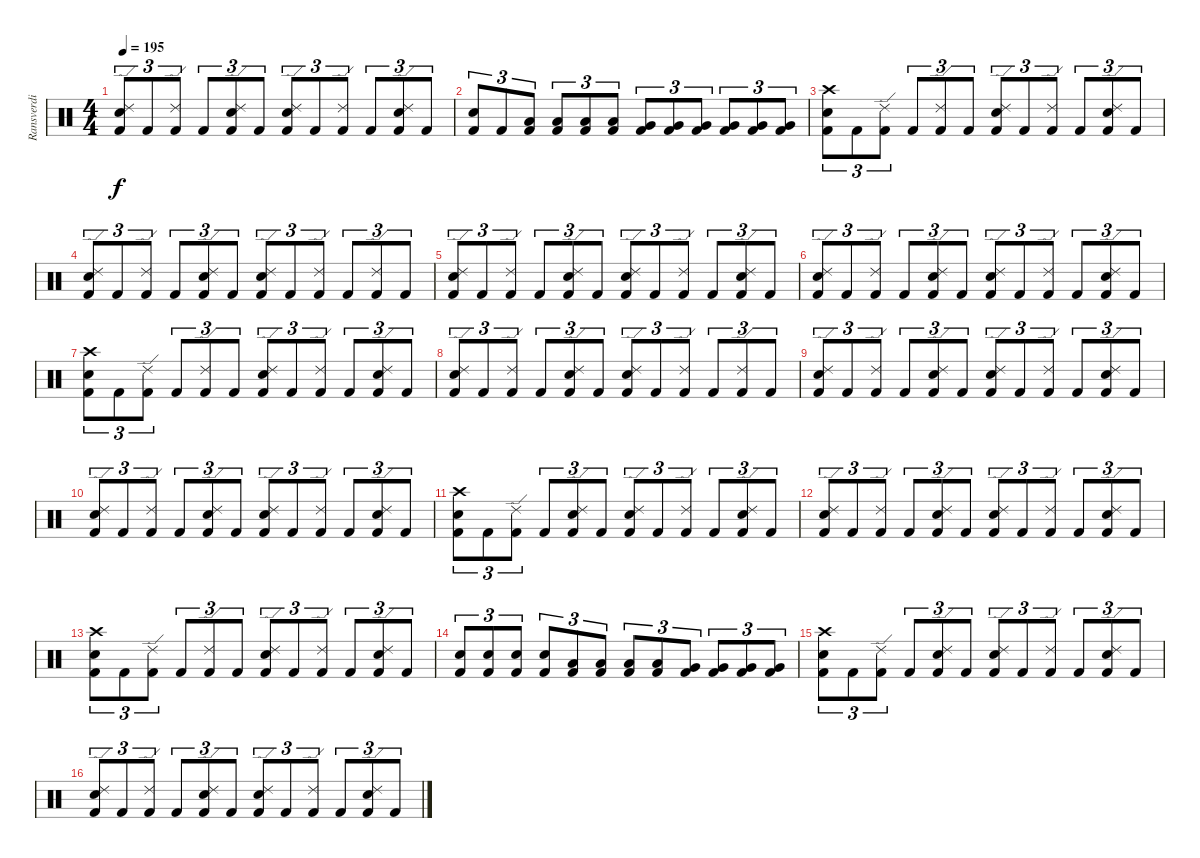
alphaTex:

\track ("Ransverdi" "Ransverdi") {instrument percussion}
\staff {score}
\articulation defaults
\ts (4 4)
\tempo 195
\clef neutral
\ks c
("Ride (edge) 2" "Snare (hit) 2" "Kick (hit) 2").8{tu (3 2) dy f} "Kick (hit) 2".8{tu (3 2)} ("Ride (edge) 2" "Kick (hit) 2").8{tu (3 2)} "Kick (hit) 2".8{tu (3 2)} ("Ride (edge) 2" "Snare (hit) 2" "Kick (hit) 2").8{tu (3 2)} "Kick (hit) 2".8{tu (3 2)} ("Ride (edge) 2" "Snare (hit) 2" "Kick (hit) 2").8{tu (3 2)} "Kick (hit) 2".8{tu (3 2)} ("Ride (edge) 2" "Kick (hit) 2").8{tu (3 2)} "Kick (hit) 2".8{tu (3 2)} ("Ride (edge) 2" "Snare (hit) 2" "Kick (hit) 2").8{tu (3 2)} "Kick (hit) 2".8{tu (3 2)} |
("Snare (hit) 2" "Kick (hit) 2").8{tu (3 2)} "Kick (hit) 2".8{tu (3 2)} ("Low Tom (hit)" "Kick (hit) 2").8{tu (3 2)} ("Low Tom (hit)" "Kick (hit) 2").8{tu (3 2)} ("Low Tom (hit)" "Kick (hit) 2").8{tu (3 2)} ("Low Tom (hit)" "Kick (hit) 2").8{tu (3 2)} ("Very Low Tom (hit)" "Kick (hit) 2").8{tu (3 2)} ("Very Low Tom (hit)" "Kick (hit) 2").8{tu (3 2)} ("Very Low Tom (hit)" "Kick (hit) 2").8{tu (3 2)} ("Very Low Tom (hit)" "Kick (hit) 2").8{tu (3 2)} ("Very Low Tom (hit)" "Kick (hit) 2").8{tu (3 2)} ("Very Low Tom (hit)" "Kick (hit) 2").8{tu (3 2)} |
("Crash high (hit)" "Snare (hit) 2" "Kick (hit) 2").8{tu (3 2)} "Kick (hit) 2".8{tu (3 2)} ("Ride (edge) 2" "Kick (hit) 2").8{tu (3 2)} "Kick (hit) 2".8{tu (3 2)} ("Ride (edge) 2" "Kick (hit) 2").8{tu (3 2)} "Kick (hit) 2".8{tu (3 2)} ("Ride (edge) 2" "Snare (hit) 2" "Kick (hit) 2").8{tu (3 2)} "Kick (hit) 2".8{tu (3 2)} ("Ride (edge) 2" "Kick (hit) 2").8{tu (3 2)} "Kick (hit) 2".8{tu (3 2)} ("Ride (edge) 2" "Snare (hit) 2" "Kick (hit) 2").8{tu (3 2)} "Kick (hit) 2".8{tu (3 2)} |
("Ride (edge) 2" "Snare (hit) 2" "Kick (hit) 2").8{tu (3 2)} "Kick (hit) 2".8{tu (3 2)} ("Ride (edge) 2" "Kick (hit) 2").8{tu (3 2)} "Kick (hit) 2".8{tu (3 2)} ("Ride (edge) 2" "Snare (hit) 2" "Kick (hit) 2").8{tu (3 2)} "Kick (hit) 2".8{tu (3 2)} ("Ride (edge) 2" "Snare (hit) 2" "Kick (hit) 2").8{tu (3 2)} "Kick (hit) 2".8{tu (3 2)} ("Ride (edge) 2" "Kick (hit) 2").8{tu (3 2)} "Kick (hit) 2".8{tu (3 2)} ("Ride (edge) 2" "Kick (hit) 2").8{tu (3 2)} "Kick (hit) 2".8{tu (3 2)} |
("Ride (edge) 2" "Snare (hit) 2" "Kick (hit) 2").8{tu (3 2)} "Kick (hit) 2".8{tu (3 2)} ("Ride (edge) 2" "Kick (hit) 2").8{tu (3 2)} "Kick (hit) 2".8{tu (3 2)} ("Ride (edge) 2" "Snare (hit) 2" "Kick (hit) 2").8{tu (3 2)} "Kick (hit) 2".8{tu (3 2)} ("Ride (edge) 2" "Snare (hit) 2" "Kick (hit) 2").8{tu (3 2)} "Kick (hit) 2".8{tu (3 2)} ("Ride (edge) 2" "Kick (hit) 2").8{tu (3 2)} "Kick (hit) 2".8{tu (3 2)} ("Ride (edge) 2" "Snare (hit) 2" "Kick (hit) 2").8{tu (3 2)} "Kick (hit) 2".8{tu (3 2)} |
("Ride (edge) 2" "Snare (hit) 2" "Kick (hit) 2").8{tu (3 2)} "Kick (hit) 2".8{tu (3 2)} ("Ride (edge) 2" "Kick (hit) 2").8{tu (3 2)} "Kick (hit) 2".8{tu (3 2)} ("Ride (edge) 2" "Snare (hit) 2" "Kick (hit) 2").8{tu (3 2)} "Kick (hit) 2".8{tu (3 2)} ("Ride (edge) 2" "Snare (hit) 2" "Kick (hit) 2").8{tu (3 2)} "Kick (hit) 2".8{tu (3 2)} ("Ride (edge) 2" "Kick (hit) 2").8{tu (3 2)} "Kick (hit) 2".8{tu (3 2)} ("Ride (edge) 2" "Snare (hit) 2" "Kick (hit) 2").8{tu (3 2)} "Kick (hit) 2".8{tu (3 2)} |
("Crash high (hit)" "Snare (hit) 2" "Kick (hit) 2").8{tu (3 2)} "Kick (hit) 2".8{tu (3 2)} ("Ride (edge) 2" "Kick (hit) 2").8{tu (3 2)} "Kick (hit) 2".8{tu (3 2)} ("Ride (edge) 2" "Kick (hit) 2").8{tu (3 2)} "Kick (hit) 2".8{tu (3 2)} ("Ride (edge) 2" "Snare (hit) 2" "Kick (hit) 2").8{tu (3 2)} "Kick (hit) 2".8{tu (3 2)} ("Ride (edge) 2" "Kick (hit) 2").8{tu (3 2)} "Kick (hit) 2".8{tu (3 2)} ("Ride (edge) 2" "Snare (hit) 2" "Kick (hit) 2").8{tu (3 2)} "Kick (hit) 2".8{tu (3 2)} |
("Ride (edge) 2" "Snare (hit) 2" "Kick (hit) 2").8{tu (3 2)} "Kick (hit) 2".8{tu (3 2)} ("Ride (edge) 2" "Kick (hit) 2").8{tu (3 2)} "Kick (hit) 2".8{tu (3 2)} ("Ride (edge) 2" "Snare (hit) 2" "Kick (hit) 2").8{tu (3 2)} "Kick (hit) 2".8{tu (3 2)} ("Ride (edge) 2" "Snare (hit) 2" "Kick (hit) 2").8{tu (3 2)} "Kick (hit) 2".8{tu (3 2)} ("Ride (edge) 2" "Kick (hit) 2").8{tu (3 2)} "Kick (hit) 2".8{tu (3 2)} ("Ride (edge) 2" "Kick (hit) 2").8{tu (3 2)} "Kick (hit) 2".8{tu (3 2)} |
("Ride (edge) 2" "Snare (hit) 2" "Kick (hit) 2").8{tu (3 2)} "Kick (hit) 2".8{tu (3 2)} ("Ride (edge) 2" "Kick (hit) 2").8{tu (3 2)} "Kick (hit) 2".8{tu (3 2)} ("Ride (edge) 2" "Snare (hit) 2" "Kick (hit) 2").8{tu (3 2)} "Kick (hit) 2".8{tu (3 2)} ("Ride (edge) 2" "Snare (hit) 2" "Kick (hit) 2").8{tu (3 2)} "Kick (hit) 2".8{tu (3 2)} ("Ride (edge) 2" "Kick (hit) 2").8{tu (3 2)} "Kick (hit) 2".8{tu (3 2)} ("Ride (edge) 2" "Snare (hit) 2" "Kick (hit) 2").8{tu (3 2)} "Kick (hit) 2".8{tu (3 2)} |
("Ride (edge) 2" "Snare (hit) 2" "Kick (hit) 2").8{tu (3 2)} "Kick (hit) 2".8{tu (3 2)} ("Ride (edge) 2" "Kick (hit) 2").8{tu (3 2)} "Kick (hit) 2".8{tu (3 2)} ("Ride (edge) 2" "Snare (hit) 2" "Kick (hit) 2").8{tu (3 2)} "Kick (hit) 2".8{tu (3 2)} ("Ride (edge) 2" "Snare (hit) 2" "Kick (hit) 2").8{tu (3 2)} "Kick (hit) 2".8{tu (3 2)} ("Ride (edge) 2" "Kick (hit) 2").8{tu (3 2)} "Kick (hit) 2".8{tu (3 2)} ("Ride (edge) 2" "Snare (hit) 2" "Kick (hit) 2").8{tu (3 2)} "Kick (hit) 2".8{tu (3 2)} |
("Crash high (hit)" "Snare (hit) 2" "Kick (hit) 2").8{tu (3 2)} "Kick (hit) 2".8{tu (3 2)} ("Ride (edge) 2" "Kick (hit) 2").8{tu (3 2)} "Kick (hit) 2".8{tu (3 2)} ("Ride (edge) 2" "Snare (hit) 2" "Kick (hit) 2").8{tu (3 2)} "Kick (hit) 2".8{tu (3 2)} ("Ride (edge) 2" "Snare (hit) 2" "Kick (hit) 2").8{tu (3 2)} "Kick (hit) 2".8{tu (3 2)} ("Ride (edge) 2" "Kick (hit) 2").8{tu (3 2)} "Kick (hit) 2".8{tu (3 2)} ("Ride (edge) 2" "Snare (hit) 2" "Kick (hit) 2").8{tu (3 2)} "Kick (hit) 2".8{tu (3 2)} |
("Ride (edge) 2" "Snare (hit) 2" "Kick (hit) 2").8{tu (3 2)} "Kick (hit) 2".8{tu (3 2)} ("Ride (edge) 2" "Kick (hit) 2").8{tu (3 2)} "Kick (hit) 2".8{tu (3 2)} ("Ride (edge) 2" "Snare (hit) 2" "Kick (hit) 2").8{tu (3 2)} "Kick (hit) 2".8{tu (3 2)} ("Ride (edge) 2" "Snare (hit) 2" "Kick (hit) 2").8{tu (3 2)} "Kick (hit) 2".8{tu (3 2)} ("Ride (edge) 2" "Kick (hit) 2").8{tu (3 2)} "Kick (hit) 2".8{tu (3 2)} ("Ride (edge) 2" "Snare (hit) 2" "Kick (hit) 2").8{tu (3 2)} "Kick (hit) 2".8{tu (3 2)} |
("Crash high (hit)" "Snare (hit) 2" "Kick (hit) 2").8{tu (3 2)} "Kick (hit) 2".8{tu (3 2)} ("Ride (edge) 2" "Kick (hit) 2").8{tu (3 2)} "Kick (hit) 2".8{tu (3 2)} ("Ride (edge) 2" "Kick (hit) 2").8{tu (3 2)} "Kick (hit) 2".8{tu (3 2)} ("Ride (edge) 2" "Snare (hit) 2" "Kick (hit) 2").8{tu (3 2)} "Kick (hit) 2".8{tu (3 2)} ("Ride (edge) 2" "Kick (hit) 2").8{tu (3 2)} "Kick (hit) 2".8{tu (3 2)} ("Ride (edge) 2" "Snare (hit) 2" "Kick (hit) 2").8{tu (3 2)} "Kick (hit) 2".8{tu (3 2)} |
("Snare (hit) 2" "Kick (hit) 2").8{tu (3 2)} ("Snare (hit) 2" "Kick (hit) 2").8{tu (3 2)} ("Snare (hit) 2" "Kick (hit) 2").8{tu (3 2)} ("Snare (hit) 2" "Kick (hit) 2").8{tu (3 2)} ("Low Tom (hit)" "Kick (hit) 2").8{tu (3 2)} ("Low Tom (hit)" "Kick (hit) 2").8{tu (3 2)} ("Low Tom (hit)" "Kick (hit) 2").8{tu (3 2)} ("Low Tom (hit)" "Kick (hit) 2").8{tu (3 2)} ("Very Low Tom (hit)" "Kick (hit) 2").8{tu (3 2)} ("Very Low Tom (hit)" "Kick (hit) 2").8{tu (3 2)} ("Very Low Tom (hit)" "Kick (hit) 2").8{tu (3 2)} ("Very Low Tom (hit)" "Kick (hit) 2").8{tu (3 2)} |
("Crash high (hit)" "Snare (hit) 2" "Kick (hit) 2").8{tu (3 2)} "Kick (hit) 2".8{tu (3 2)} ("Ride (edge) 2" "Kick (hit) 2").8{tu (3 2)} "Kick (hit) 2".8{tu (3 2)} ("Ride (edge) 2" "Snare (hit) 2" "Kick (hit) 2").8{tu (3 2)} "Kick (hit) 2".8{tu (3 2)} ("Ride (edge) 2" "Snare (hit) 2" "Kick (hit) 2").8{tu (3 2)} "Kick (hit) 2".8{tu (3 2)} ("Ride (edge) 2" "Kick (hit) 2").8{tu (3 2)} "Kick (hit) 2".8{tu (3 2)} ("Ride (edge) 2" "Snare (hit) 2" "Kick (hit) 2").8{tu (3 2)} "Kick (hit) 2".8{tu (3 2)} |
("Ride (edge) 2" "Snare (hit) 2" "Kick (hit) 2").8{tu (3 2)} "Kick (hit) 2".8{tu (3 2)} ("Ride (edge) 2" "Kick (hit) 2").8{tu (3 2)} "Kick (hit) 2".8{tu (3 2)} ("Ride (edge) 2" "Snare (hit) 2" "Kick (hit) 2").8{tu (3 2)} "Kick (hit) 2".8{tu (3 2)} ("Ride (edge) 2" "Snare (hit) 2" "Kick (hit) 2").8{tu (3 2)} "Kick (hit) 2".8{tu (3 2)} ("Ride (edge) 2" "Kick (hit) 2").8{tu (3 2)} "Kick (hit) 2".8{tu (3 2)} ("Ride (edge) 2" "Snare (hit) 2" "Kick (hit) 2").8{tu (3 2)} "Kick (hit) 2".8{tu (3 2)}
